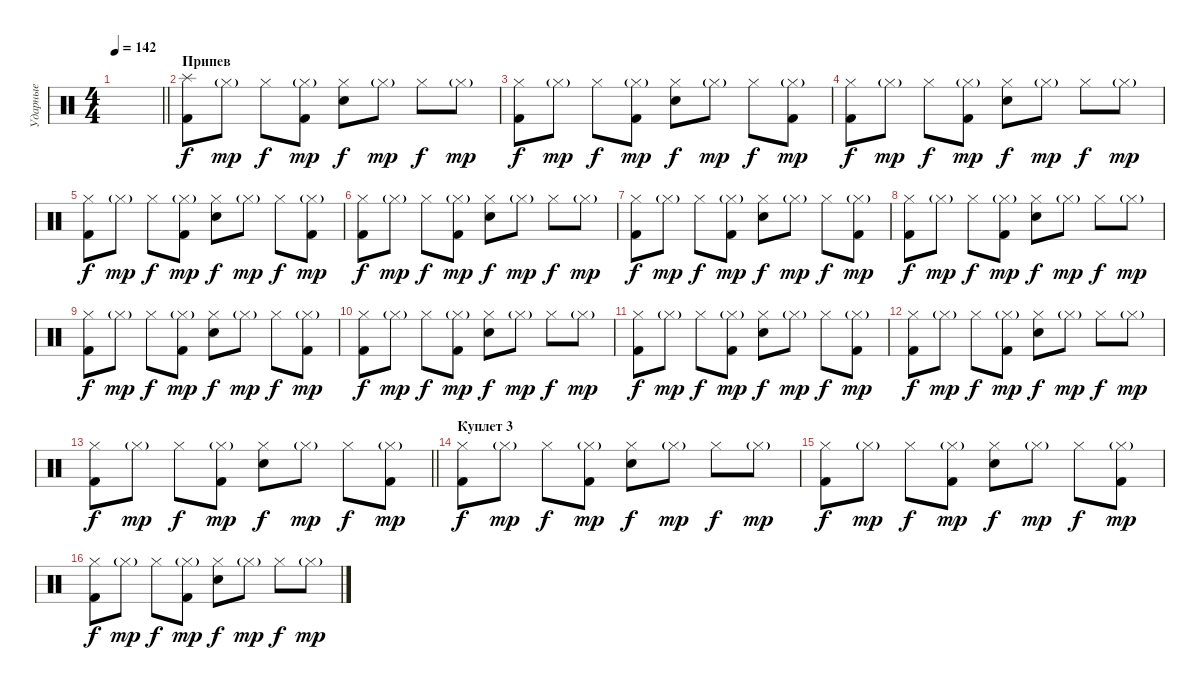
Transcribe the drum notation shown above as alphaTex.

\track ("Ударные" "Ударные") {instrument percussion}
\staff {score}
\articulation defaults
\ts (4 4)
\tempo 142
\clef neutral
\barLineRight lightlight
\ks c
|
\section ("" "Припев")
("Splash (hit)" "Kick (hit) 2").8{dy f} "Hi-Hat (closed)"{g}.8{dy mp} "Hi-Hat (closed)".8{dy f} ("Hi-Hat (closed)"{g} "Kick (hit) 2").8{dy mp} ("Hi-Hat (closed)" "Snare (hit) 2").8{dy f} "Hi-Hat (closed)"{g}.8{dy mp} "Hi-Hat (closed)".8{dy f} "Hi-Hat (closed)"{g}.8{dy mp} |
("Hi-Hat (closed)" "Kick (hit) 2").8{dy f} "Hi-Hat (closed)"{g}.8{dy mp} "Hi-Hat (closed)".8{dy f} ("Hi-Hat (closed)"{g} "Kick (hit) 2").8{dy mp} ("Hi-Hat (closed)" "Snare (hit) 2").8{dy f} "Hi-Hat (closed)"{g}.8{dy mp} "Hi-Hat (closed)".8{dy f} ("Hi-Hat (closed)"{g} "Kick (hit) 2").8{dy mp} |
("Hi-Hat (closed)" "Kick (hit) 2").8{dy f} "Hi-Hat (closed)"{g}.8{dy mp} "Hi-Hat (closed)".8{dy f} ("Hi-Hat (closed)"{g} "Kick (hit) 2").8{dy mp} ("Hi-Hat (closed)" "Snare (hit) 2").8{dy f} "Hi-Hat (closed)"{g}.8{dy mp} "Hi-Hat (closed)".8{dy f} "Hi-Hat (closed)"{g}.8{dy mp} |
("Hi-Hat (closed)" "Kick (hit) 2").8{dy f} "Hi-Hat (closed)"{g}.8{dy mp} "Hi-Hat (closed)".8{dy f} ("Hi-Hat (closed)"{g} "Kick (hit) 2").8{dy mp} ("Hi-Hat (closed)" "Snare (hit) 2").8{dy f} "Hi-Hat (closed)"{g}.8{dy mp} "Hi-Hat (closed)".8{dy f} ("Hi-Hat (closed)"{g} "Kick (hit) 2").8{dy mp} |
("Hi-Hat (closed)" "Kick (hit) 2").8{dy f} "Hi-Hat (closed)"{g}.8{dy mp} "Hi-Hat (closed)".8{dy f} ("Hi-Hat (closed)"{g} "Kick (hit) 2").8{dy mp} ("Hi-Hat (closed)" "Snare (hit) 2").8{dy f} "Hi-Hat (closed)"{g}.8{dy mp} "Hi-Hat (closed)".8{dy f} "Hi-Hat (closed)"{g}.8{dy mp} |
("Hi-Hat (closed)" "Kick (hit) 2").8{dy f} "Hi-Hat (closed)"{g}.8{dy mp} "Hi-Hat (closed)".8{dy f} ("Hi-Hat (closed)"{g} "Kick (hit) 2").8{dy mp} ("Hi-Hat (closed)" "Snare (hit) 2").8{dy f} "Hi-Hat (closed)"{g}.8{dy mp} "Hi-Hat (closed)".8{dy f} ("Hi-Hat (closed)"{g} "Kick (hit) 2").8{dy mp} |
("Hi-Hat (closed)" "Kick (hit) 2").8{dy f} "Hi-Hat (closed)"{g}.8{dy mp} "Hi-Hat (closed)".8{dy f} ("Hi-Hat (closed)"{g} "Kick (hit) 2").8{dy mp} ("Hi-Hat (closed)" "Snare (hit) 2").8{dy f} "Hi-Hat (closed)"{g}.8{dy mp} "Hi-Hat (closed)".8{dy f} "Hi-Hat (closed)"{g}.8{dy mp} |
("Hi-Hat (closed)" "Kick (hit) 2").8{dy f} "Hi-Hat (closed)"{g}.8{dy mp} "Hi-Hat (closed)".8{dy f} ("Hi-Hat (closed)"{g} "Kick (hit) 2").8{dy mp} ("Hi-Hat (closed)" "Snare (hit) 2").8{dy f} "Hi-Hat (closed)"{g}.8{dy mp} "Hi-Hat (closed)".8{dy f} ("Hi-Hat (closed)"{g} "Kick (hit) 2").8{dy mp} |
("Hi-Hat (closed)" "Kick (hit) 2").8{dy f} "Hi-Hat (closed)"{g}.8{dy mp} "Hi-Hat (closed)".8{dy f} ("Hi-Hat (closed)"{g} "Kick (hit) 2").8{dy mp} ("Hi-Hat (closed)" "Snare (hit) 2").8{dy f} "Hi-Hat (closed)"{g}.8{dy mp} "Hi-Hat (closed)".8{dy f} "Hi-Hat (closed)"{g}.8{dy mp} |
("Hi-Hat (closed)" "Kick (hit) 2").8{dy f} "Hi-Hat (closed)"{g}.8{dy mp} "Hi-Hat (closed)".8{dy f} ("Hi-Hat (closed)"{g} "Kick (hit) 2").8{dy mp} ("Hi-Hat (closed)" "Snare (hit) 2").8{dy f} "Hi-Hat (closed)"{g}.8{dy mp} "Hi-Hat (closed)".8{dy f} ("Hi-Hat (closed)"{g} "Kick (hit) 2").8{dy mp} |
("Hi-Hat (closed)" "Kick (hit) 2").8{dy f} "Hi-Hat (closed)"{g}.8{dy mp} "Hi-Hat (closed)".8{dy f} ("Hi-Hat (closed)"{g} "Kick (hit) 2").8{dy mp} ("Hi-Hat (closed)" "Snare (hit) 2").8{dy f} "Hi-Hat (closed)"{g}.8{dy mp} "Hi-Hat (closed)".8{dy f} "Hi-Hat (closed)"{g}.8{dy mp} |
\barLineRight lightlight
("Hi-Hat (closed)" "Kick (hit) 2").8{dy f} "Hi-Hat (closed)"{g}.8{dy mp} "Hi-Hat (closed)".8{dy f} ("Hi-Hat (closed)"{g} "Kick (hit) 2").8{dy mp} ("Hi-Hat (closed)" "Snare (hit) 2").8{dy f} "Hi-Hat (closed)"{g}.8{dy mp} "Hi-Hat (closed)".8{dy f} ("Hi-Hat (closed)"{g} "Kick (hit) 2").8{dy mp} |
\section ("" "Куплет 3")
("Hi-Hat (closed)" "Kick (hit) 2").8{dy f} "Hi-Hat (closed)"{g}.8{dy mp} "Hi-Hat (closed)".8{dy f} ("Hi-Hat (closed)"{g} "Kick (hit) 2").8{dy mp} ("Hi-Hat (closed)" "Snare (hit) 2").8{dy f} "Hi-Hat (closed)"{g}.8{dy mp} "Hi-Hat (closed)".8{dy f} "Hi-Hat (closed)"{g}.8{dy mp} |
("Hi-Hat (closed)" "Kick (hit) 2").8{dy f} "Hi-Hat (closed)"{g}.8{dy mp} "Hi-Hat (closed)".8{dy f} ("Hi-Hat (closed)"{g} "Kick (hit) 2").8{dy mp} ("Hi-Hat (closed)" "Snare (hit) 2").8{dy f} "Hi-Hat (closed)"{g}.8{dy mp} "Hi-Hat (closed)".8{dy f} ("Hi-Hat (closed)"{g} "Kick (hit) 2").8{dy mp} |
("Hi-Hat (closed)" "Kick (hit) 2").8{dy f} "Hi-Hat (closed)"{g}.8{dy mp} "Hi-Hat (closed)".8{dy f} ("Hi-Hat (closed)"{g} "Kick (hit) 2").8{dy mp} ("Hi-Hat (closed)" "Snare (hit) 2").8{dy f} "Hi-Hat (closed)"{g}.8{dy mp} "Hi-Hat (closed)".8{dy f} "Hi-Hat (closed)"{g}.8{dy mp}
